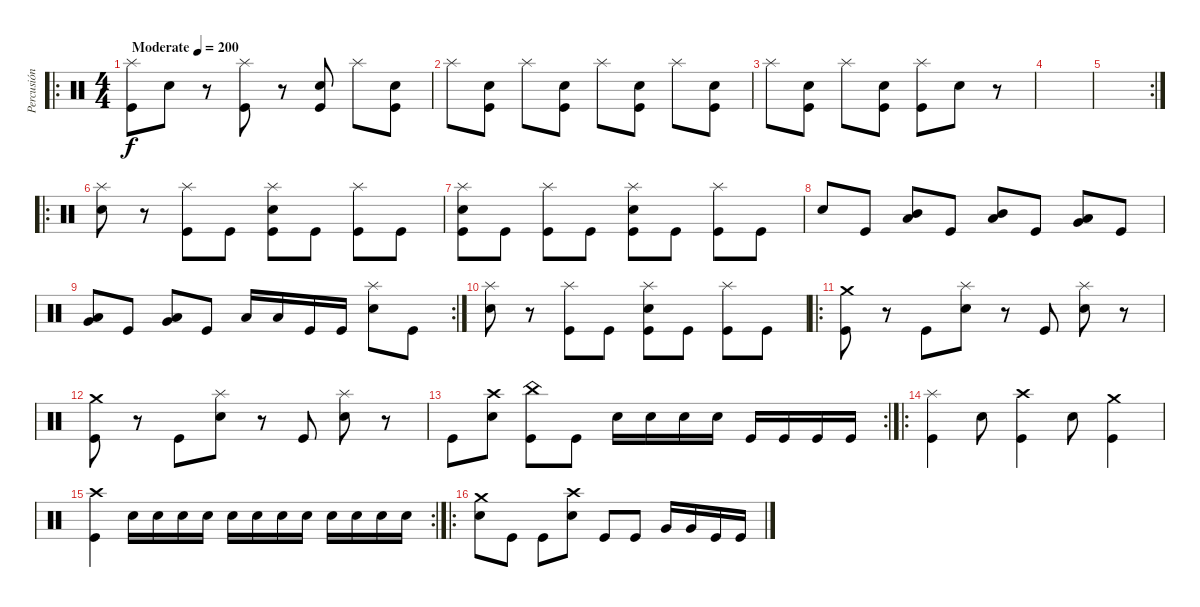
\track ("Percusión" "Percusión") {instrument percussion}
\staff {score}
\articulation defaults
\ro
\ts (4 4)
\tempo (200 "Moderate")
\clef neutral
\ks c
("Splash (hit)" "Kick (hit)").8{dy f} "Electric Snare (hit)".8 r.8 ("Splash (hit)" "Kick (hit)").8 r.8 ("Electric Snare (hit)" "Kick (hit)").8 "Splash (hit)".8 ("Electric Snare (hit)" "Kick (hit)").8 |
"Splash (hit)".8 ("Electric Snare (hit)" "Kick (hit)").8 "Splash (hit)".8 ("Electric Snare (hit)" "Kick (hit)").8 "Splash (hit)".8 ("Electric Snare (hit)" "Kick (hit)").8 "Splash (hit)".8 ("Electric Snare (hit)" "Kick (hit)").8 |
"Splash (hit)".8 ("Electric Snare (hit)" "Kick (hit)").8 "Splash (hit)".8 ("Electric Snare (hit)" "Kick (hit)").8 ("Splash (hit)" "Kick (hit)").8 "Electric Snare (hit)".8 r.8 |
|
\rc 2
|
\ro
("Electric Snare (hit)" "Splash (hit)").8 r.8 ("Splash (hit)" "Kick (hit)").8 "Kick (hit)".8 ("Electric Snare (hit)" "Splash (hit)" "Kick (hit)").8 "Kick (hit)".8 ("Splash (hit)" "Kick (hit)").8 "Kick (hit)".8 |
("Electric Snare (hit)" "Splash (hit)" "Kick (hit)").8 "Kick (hit)".8 ("Splash (hit)" "Kick (hit)").8 "Kick (hit)".8 ("Electric Snare (hit)" "Splash (hit)" "Kick (hit)").8 "Kick (hit)".8 ("Splash (hit)" "Kick (hit)").8 "Kick (hit)".8 |
"Electric Snare (hit)".8 "Kick (hit)".8 ("Mid Tom (hit)" "Low Tom (hit)").8 "Kick (hit)".8 ("Mid Tom (hit)" "Low Tom (hit)").8 "Kick (hit)".8 ("Low Tom (hit)" "Very Low Tom (hit)").8 "Kick (hit)".8 |
\rc 2
("Low Tom (hit)" "Very Low Tom (hit)").8 "Kick (hit)".8 ("Very Low Tom (hit)" "Low Floor Tom (hit)").8 "Kick (hit)".8 "Low Tom (hit)".16 "Low Tom (hit)".16 "Kick (hit)".16 "Kick (hit)".16 ("Electric Snare (hit)" "Splash (hit)").8 "Kick (hit)".8 |
("Electric Snare (hit)" "Splash (hit)").8 r.8 ("Splash (hit)" "Kick (hit)").8 "Kick (hit)".8 ("Electric Snare (hit)" "Splash (hit)" "Kick (hit)").8 "Kick (hit)".8 ("Splash (hit)" "Kick (hit)").8 "Kick (hit)".8 |
\ro
("Crash medium (hit)" "Kick (hit)").8 r.8 "Kick (hit)".8 ("Electric Snare (hit)" "Splash (hit)").8 r.8 "Kick (hit)".8 ("Electric Snare (hit)" "Splash (hit)").8 r.8 |
("Crash medium (hit)" "Kick (hit)").8 r.8 "Kick (hit)".8 ("Electric Snare (hit)" "Splash (hit)").8 r.8 "Kick (hit)".8 ("Electric Snare (hit)" "Splash (hit)").8 r.8 |
\rc 2 "Kick (hit)".8
("Electric Snare (hit)" "Crash high (hit)").8 ("China (hit)" "Kick (hit)").8 "Kick (hit)".8 "Electric Snare (hit)".16 "Electric Snare (hit)".16 "Electric Snare (hit)".16 "Electric Snare (hit)".16 "Kick (hit)".16 "Kick (hit)".16 "Kick (hit)".16 "Kick (hit)".16 |
\ro
("Splash (hit)" "Kick (hit)").4 "Electric Snare (hit)".8 ("Crash high (hit)" "Kick (hit)").4 "Electric Snare (hit)".8 ("Crash medium (hit)" "Kick (hit)").4 |
\rc 2
("Crash high (hit)" "Kick (hit)").4 "Electric Snare (hit)".16 "Electric Snare (hit)".16 "Electric Snare (hit)".16 "Electric Snare (hit)".16 "Electric Snare (hit)".16 "Electric Snare (hit)".16 "Electric Snare (hit)".16 "Electric Snare (hit)".16 "Electric Snare (hit)".16 "Electric Snare (hit)".16 "Electric Snare (hit)".16 "Electric Snare (hit)".16 |
\ro
("Electric Snare (hit)" "Crash medium (hit)").8 "Kick (hit)".8 "Kick (hit)".8 ("Electric Snare (hit)" "Crash high (hit)").8 "Kick (hit)".8 "Kick (hit)".8 "Very Low Tom (hit)".16 "Very Low Tom (hit)".16 "Kick (hit)".16 "Kick (hit)".16
